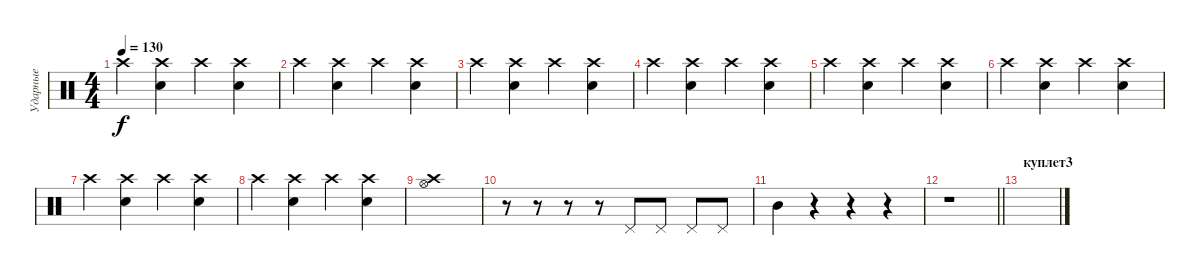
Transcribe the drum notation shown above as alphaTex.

\track ("Ударные" "Ударные") {instrument percussion}
\staff {score}
\articulation defaults
\ts (4 4)
\tempo 130
\clef neutral
\ks c "Crash high (hit)".4{dy f}
("Snare (hit) 2" "Crash high (hit)").4 "Crash high (hit)".4 ("Snare (hit) 2" "Crash high (hit)").4 |
"Crash high (hit)".4 ("Snare (hit) 2" "Crash high (hit)").4 "Crash high (hit)".4 ("Snare (hit) 2" "Crash high (hit)").4 |
"Crash high (hit)".4 ("Snare (hit) 2" "Crash high (hit)").4 "Crash high (hit)".4 ("Snare (hit) 2" "Crash high (hit)").4 |
"Crash high (hit)".4 ("Snare (hit) 2" "Crash high (hit)").4 "Crash high (hit)".4 ("Snare (hit) 2" "Crash high (hit)").4 |
"Crash high (hit)".4 ("Snare (hit) 2" "Crash high (hit)").4 "Crash high (hit)".4 ("Snare (hit) 2" "Crash high (hit)").4 |
"Crash high (hit)".4 ("Snare (hit) 2" "Crash high (hit)").4 "Crash high (hit)".4 ("Snare (hit) 2" "Crash high (hit)").4 |
"Crash high (hit)".4 ("Snare (hit) 2" "Crash high (hit)").4 "Crash high (hit)".4 ("Snare (hit) 2" "Crash high (hit)").4 |
"Crash high (hit)".4 ("Snare (hit) 2" "Crash high (hit)").4 "Crash high (hit)".4 ("Snare (hit) 2" "Crash high (hit)").4 |
("Crash high (hit)" "Hi-Hat (open)").1 |
r.8 r.8 r.8 r.8 "Pedal Hi-Hat (hit)".8 "Pedal Hi-Hat (hit)".8 "Pedal Hi-Hat (hit)".8 "Pedal Hi-Hat (hit)".8 |
"Mid Tom (hit)".4 r.4 r.4 r.4 |
\barLineRight lightlight
r.1 |
\section ("" "куплет3")
